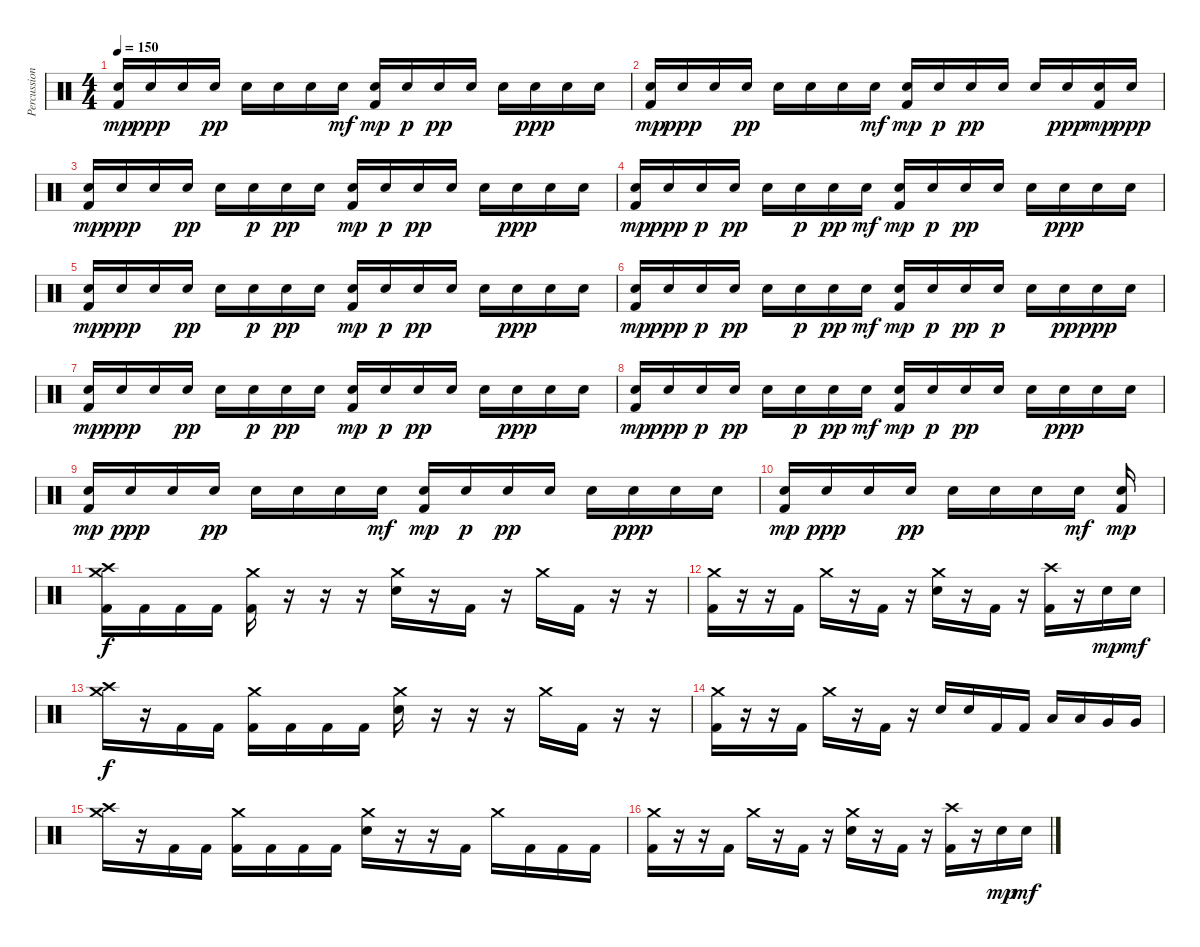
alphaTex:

\track ("Percussioni" "Percussion") {instrument percussion}
\staff {score}
\articulation defaults
\ts (4 4)
\tempo 150
\clef neutral
\ks c
("Snare (hit) 2" "Kick (hit) 2").16{dy mp} "Snare (hit) 2".16{dy ppp} "Snare (hit) 2".16 "Snare (hit) 2".16{dy pp} "Snare (hit) 2".16 "Snare (hit) 2".16 "Snare (hit) 2".16 "Snare (hit) 2".16{dy mf} ("Snare (hit) 2" "Kick (hit) 2").16{dy mp} "Snare (hit) 2".16{dy p} "Snare (hit) 2".16{dy pp} "Snare (hit) 2".16 "Snare (hit) 2".16 "Snare (hit) 2".16{dy ppp} "Snare (hit) 2".16 "Snare (hit) 2".16 |
("Snare (hit) 2" "Kick (hit) 2").16{dy mp} "Snare (hit) 2".16{dy ppp} "Snare (hit) 2".16 "Snare (hit) 2".16{dy pp} "Snare (hit) 2".16 "Snare (hit) 2".16 "Snare (hit) 2".16 "Snare (hit) 2".16{dy mf} ("Snare (hit) 2" "Kick (hit) 2").16{dy mp} "Snare (hit) 2".16{dy p} "Snare (hit) 2".16{dy pp} "Snare (hit) 2".16 "Snare (hit) 2".16 "Snare (hit) 2".16{dy ppp} ("Snare (hit) 2" "Kick (hit) 2").16{dy mp} "Snare (hit) 2".16{dy ppp} |
("Snare (hit) 2" "Kick (hit) 2").16{dy mp} "Snare (hit) 2".16{dy ppp} "Snare (hit) 2".16 "Snare (hit) 2".16{dy pp} "Snare (hit) 2".16 "Snare (hit) 2".16{dy p} "Snare (hit) 2".16{dy pp} "Snare (hit) 2".16 ("Snare (hit) 2" "Kick (hit) 2").16{dy mp} "Snare (hit) 2".16{dy p} "Snare (hit) 2".16{dy pp} "Snare (hit) 2".16 "Snare (hit) 2".16 "Snare (hit) 2".16{dy ppp} "Snare (hit) 2".16 "Snare (hit) 2".16 |
("Snare (hit) 2" "Kick (hit) 2").16{dy mp} "Snare (hit) 2".16{dy ppp} "Snare (hit) 2".16{dy p} "Snare (hit) 2".16{dy pp} "Snare (hit) 2".16 "Snare (hit) 2".16{dy p} "Snare (hit) 2".16{dy pp} "Snare (hit) 2".16{dy mf} ("Snare (hit) 2" "Kick (hit) 2").16{dy mp} "Snare (hit) 2".16{dy p} "Snare (hit) 2".16{dy pp} "Snare (hit) 2".16 "Snare (hit) 2".16 "Snare (hit) 2".16{dy ppp} "Snare (hit) 2".16 "Snare (hit) 2".16 |
("Snare (hit) 2" "Kick (hit) 2").16{dy mp} "Snare (hit) 2".16{dy ppp} "Snare (hit) 2".16 "Snare (hit) 2".16{dy pp} "Snare (hit) 2".16 "Snare (hit) 2".16{dy p} "Snare (hit) 2".16{dy pp} "Snare (hit) 2".16 ("Snare (hit) 2" "Kick (hit) 2").16{dy mp} "Snare (hit) 2".16{dy p} "Snare (hit) 2".16{dy pp} "Snare (hit) 2".16 "Snare (hit) 2".16 "Snare (hit) 2".16{dy ppp} "Snare (hit) 2".16 "Snare (hit) 2".16 |
("Snare (hit) 2" "Kick (hit) 2").16{dy mp} "Snare (hit) 2".16{dy ppp} "Snare (hit) 2".16{dy p} "Snare (hit) 2".16{dy pp} "Snare (hit) 2".16 "Snare (hit) 2".16{dy p} "Snare (hit) 2".16{dy pp} "Snare (hit) 2".16{dy mf} ("Snare (hit) 2" "Kick (hit) 2").16{dy mp} "Snare (hit) 2".16{dy p} "Snare (hit) 2".16{dy pp} "Snare (hit) 2".16{dy p} "Snare (hit) 2".16 "Snare (hit) 2".16{dy pp} "Snare (hit) 2".16{dy ppp} "Snare (hit) 2".16 |
("Snare (hit) 2" "Kick (hit) 2").16{dy mp} "Snare (hit) 2".16{dy ppp} "Snare (hit) 2".16 "Snare (hit) 2".16{dy pp} "Snare (hit) 2".16 "Snare (hit) 2".16{dy p} "Snare (hit) 2".16{dy pp} "Snare (hit) 2".16 ("Snare (hit) 2" "Kick (hit) 2").16{dy mp} "Snare (hit) 2".16{dy p} "Snare (hit) 2".16{dy pp} "Snare (hit) 2".16 "Snare (hit) 2".16 "Snare (hit) 2".16{dy ppp} "Snare (hit) 2".16 "Snare (hit) 2".16 |
("Snare (hit) 2" "Kick (hit) 2").16{dy mp} "Snare (hit) 2".16{dy ppp} "Snare (hit) 2".16{dy p} "Snare (hit) 2".16{dy pp} "Snare (hit) 2".16 "Snare (hit) 2".16{dy p} "Snare (hit) 2".16{dy pp} "Snare (hit) 2".16{dy mf} ("Snare (hit) 2" "Kick (hit) 2").16{dy mp} "Snare (hit) 2".16{dy p} "Snare (hit) 2".16{dy pp} "Snare (hit) 2".16 "Snare (hit) 2".16 "Snare (hit) 2".16{dy ppp} "Snare (hit) 2".16 "Snare (hit) 2".16 |
("Snare (hit) 2" "Kick (hit) 2").16{dy mp} "Snare (hit) 2".16{dy ppp} "Snare (hit) 2".16 "Snare (hit) 2".16{dy pp} "Snare (hit) 2".16 "Snare (hit) 2".16 "Snare (hit) 2".16 "Snare (hit) 2".16{dy mf} ("Snare (hit) 2" "Kick (hit) 2").16{dy mp} "Snare (hit) 2".16{dy p} "Snare (hit) 2".16{dy pp} "Snare (hit) 2".16 "Snare (hit) 2".16 "Snare (hit) 2".16{dy ppp} "Snare (hit) 2".16 "Snare (hit) 2".16 |
("Snare (hit) 2" "Kick (hit) 2").16{dy mp} "Snare (hit) 2".16{dy ppp} "Snare (hit) 2".16 "Snare (hit) 2".16{dy pp} "Snare (hit) 2".16 "Snare (hit) 2".16 "Snare (hit) 2".16 "Snare (hit) 2".16{dy mf} ("Snare (hit) 2" "Kick (hit) 2").16{dy mp} |
("Crash high (hit)" "Kick (hit) 2" "Crash medium (hit)").16{dy f} "Kick (hit) 2".16 "Kick (hit) 2".16 "Kick (hit) 2".16 ("Kick (hit) 2" "Crash medium (hit)").16 r.16 r.16 r.16 ("Snare (hit) 2" "Crash medium (hit)").16 r.16 "Kick (hit) 2".16 r.16 "Crash medium (hit)".16 "Kick (hit) 2".16 r.16 r.16 |
("Crash medium (hit)" "Kick (hit) 2").16 r.16 r.16 "Kick (hit) 2".16 "Crash medium (hit)".16 r.16 "Kick (hit) 2".16 r.16 ("Snare (hit) 2" "Crash medium (hit)").16 r.16 "Kick (hit) 2".16 r.16 ("Kick (hit) 2" "Crash high (hit)").16 r.16 "Snare (hit) 2".16{dy mp} "Snare (hit) 2".16{dy mf} |
("Crash high (hit)" "Crash medium (hit)").16{dy f} r.16 "Kick (hit) 2".16 "Kick (hit) 2".16 ("Kick (hit) 2" "Crash medium (hit)").16 "Kick (hit) 2".16 "Kick (hit) 2".16 "Kick (hit) 2".16 ("Snare (hit) 2" "Crash medium (hit)").16 r.16 r.16 r.16 "Crash medium (hit)".16 "Kick (hit) 2".16 r.16 r.16 |
("Crash medium (hit)" "Kick (hit) 2").16 r.16 r.16 "Kick (hit) 2".16 "Crash medium (hit)".16 r.16 "Kick (hit) 2".16 r.16 "Snare (hit) 2".16 "Snare (hit) 2".16 "Kick (hit) 2".16 "Kick (hit) 2".16 "Low Tom (hit)".16 "Low Tom (hit)".16 "Very Low Tom (hit)".16 "Very Low Tom (hit)".16 |
("Crash high (hit)" "Crash medium (hit)").16 r.16 "Kick (hit) 2".16 "Kick (hit) 2".16 ("Kick (hit) 2" "Crash medium (hit)").16 "Kick (hit) 2".16 "Kick (hit) 2".16 "Kick (hit) 2".16 ("Snare (hit) 2" "Crash medium (hit)").16 r.16 r.16 "Kick (hit) 2".16 "Crash medium (hit)".16 "Kick (hit) 2".16 "Kick (hit) 2".16 "Kick (hit) 2".16 |
("Crash medium (hit)" "Kick (hit) 2").16 r.16 r.16 "Kick (hit) 2".16 "Crash medium (hit)".16 r.16 "Kick (hit) 2".16 r.16 ("Snare (hit) 2" "Crash medium (hit)").16 r.16 "Kick (hit) 2".16 r.16 ("Kick (hit) 2" "Crash high (hit)").16 r.16 "Snare (hit) 2".16{dy mp} "Snare (hit) 2".16{dy mf}
